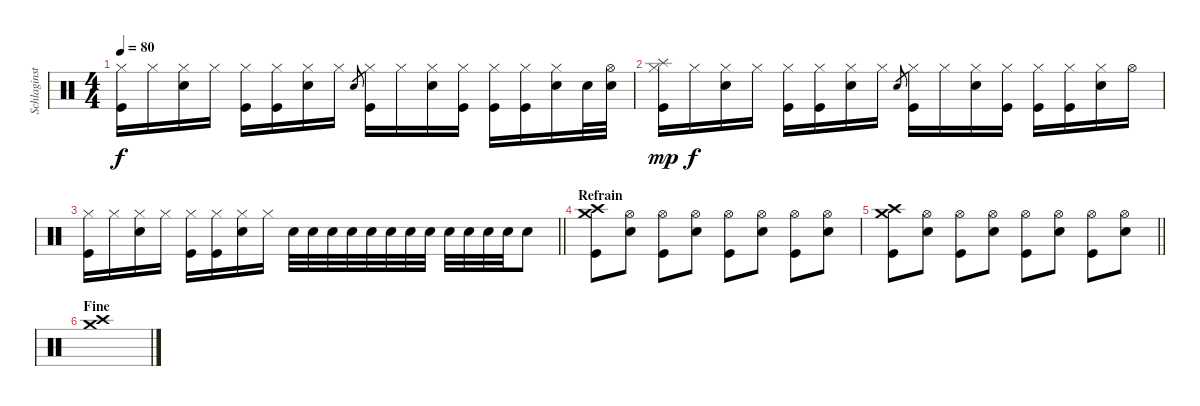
\track ("Schlaginstrumente - Auswahl" "Schlaginst") {instrument percussion}
\staff {score}
\articulation defaults
\ts (4 4)
\tempo 80
\clef neutral
\ks c
("Hi-Hat (closed)" "Kick (hit)").16{dy f} "Hi-Hat (closed)".16 ("Hi-Hat (closed)" "Electric Snare (hit)").16 "Hi-Hat (closed)".16 ("Hi-Hat (closed)" "Kick (hit)").16 ("Hi-Hat (closed)" "Kick (hit)").16 ("Hi-Hat (closed)" "Electric Snare (hit)").16 "Hi-Hat (closed)".16 "Electric Snare (hit)".8{gr} ("Hi-Hat (closed)" "Kick (hit)").16 "Hi-Hat (closed)".16 ("Hi-Hat (closed)" "Electric Snare (hit)").16 ("Hi-Hat (closed)" "Kick (hit)").16 ("Hi-Hat (closed)" "Kick (hit)").16 ("Hi-Hat (closed)" "Kick (hit)").16 ("Hi-Hat (closed)" "Electric Snare (hit)").16 "Electric Snare (hit)".32 ("Hi-Hat (open)" "Electric Snare (hit)").32 |
("Splash (hit)" "Hi-Hat (closed)" "Kick (hit)").16{dy mp} "Hi-Hat (closed)".16{dy f} ("Hi-Hat (closed)" "Electric Snare (hit)").16 "Hi-Hat (closed)".16 ("Hi-Hat (closed)" "Kick (hit)").16 ("Hi-Hat (closed)" "Kick (hit)").16 ("Hi-Hat (closed)" "Electric Snare (hit)").16 "Hi-Hat (closed)".16 "Electric Snare (hit)".8{gr} ("Hi-Hat (closed)" "Kick (hit)").16 "Hi-Hat (closed)".16 ("Hi-Hat (closed)" "Electric Snare (hit)").16 ("Hi-Hat (closed)" "Kick (hit)").16 ("Hi-Hat (closed)" "Kick (hit)").16 ("Hi-Hat (closed)" "Kick (hit)").16 ("Hi-Hat (closed)" "Electric Snare (hit)").16 "Hi-Hat (open)".16 |
\barLineRight lightlight
("Hi-Hat (closed)" "Kick (hit)").16 "Hi-Hat (closed)".16 ("Hi-Hat (closed)" "Electric Snare (hit)").16 "Hi-Hat (closed)".16 ("Hi-Hat (closed)" "Kick (hit)").16 ("Hi-Hat (closed)" "Kick (hit)").16 ("Hi-Hat (closed)" "Electric Snare (hit)").16 "Hi-Hat (closed)".16 "Electric Snare (hit)".32 "Electric Snare (hit)".32 "Electric Snare (hit)".32 "Electric Snare (hit)".32 "Electric Snare (hit)".32 "Electric Snare (hit)".32 "Electric Snare (hit)".32 "Electric Snare (hit)".32 "Electric Snare (hit)".32 "Electric Snare (hit)".32 "Electric Snare (hit)".32 "Electric Snare (hit)".32 "Electric Snare (hit)".8 |
\section ("" "Refrain")
("Crash high (hit)" "Crash medium (hit)" "Kick (hit)").8 ("Hi-Hat (open)" "Electric Snare (hit)").8 ("Hi-Hat (open)" "Kick (hit)").8 ("Hi-Hat (open)" "Electric Snare (hit)").8 ("Hi-Hat (open)" "Kick (hit)").8 ("Hi-Hat (open)" "Electric Snare (hit)").8 ("Hi-Hat (open)" "Kick (hit)").8 ("Hi-Hat (open)" "Electric Snare (hit)").8 |
\barLineRight lightlight
("Crash high (hit)" "Crash medium (hit)" "Kick (hit)").8 ("Hi-Hat (open)" "Electric Snare (hit)").8 ("Hi-Hat (open)" "Kick (hit)").8 ("Hi-Hat (open)" "Electric Snare (hit)").8 ("Hi-Hat (open)" "Kick (hit)").8 ("Hi-Hat (open)" "Electric Snare (hit)").8 ("Hi-Hat (open)" "Kick (hit)").8 ("Hi-Hat (open)" "Electric Snare (hit)").8 |
\section ("" "Fine")
("Crash high (hit)" "Crash medium (hit)").1
